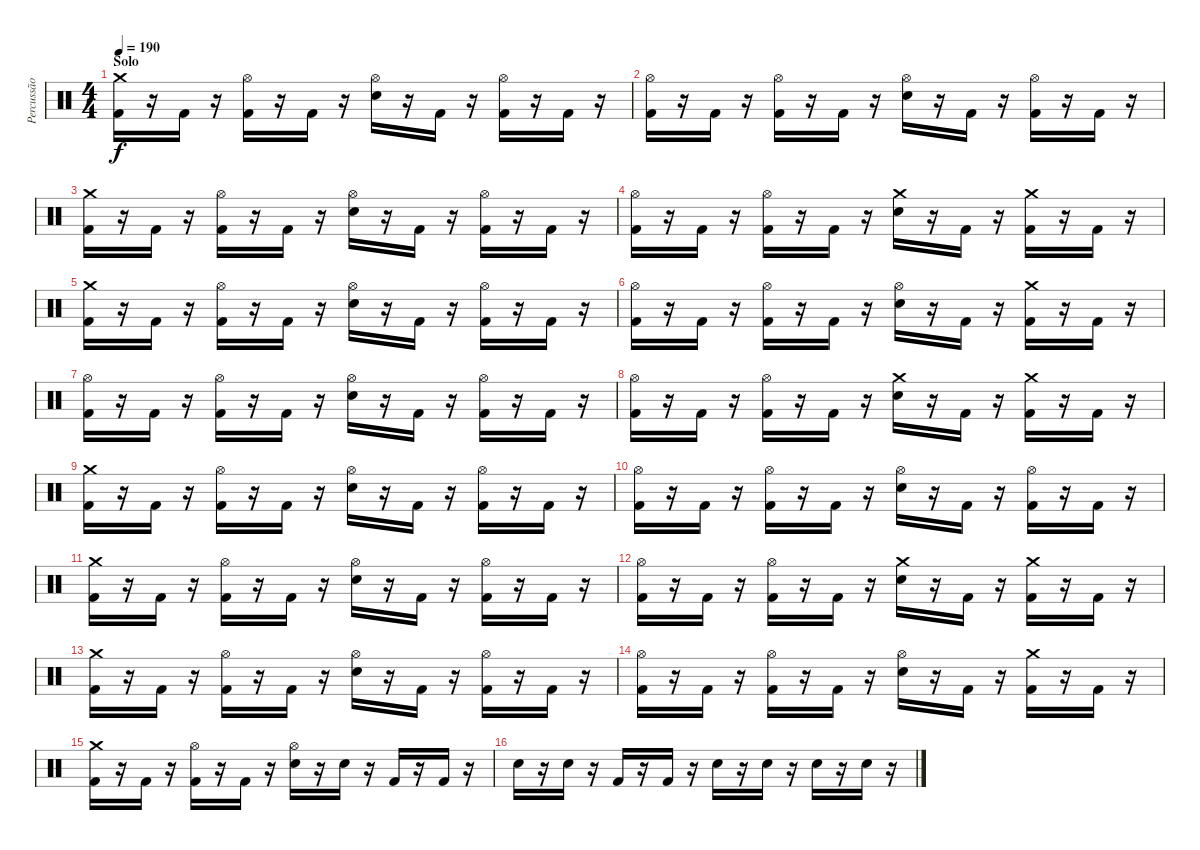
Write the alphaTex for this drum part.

\track ("Percussão" "Percussão") {instrument percussion}
\staff {score}
\articulation defaults
\ts (4 4)
\section ("" "Solo")
\tempo 190
\clef neutral
\ks c
("Crash medium (hit)" "Kick (hit) 2").16{dy f} r.16 "Kick (hit) 2".16 r.16 ("Hi-Hat (open)" "Kick (hit) 2").16 r.16 "Kick (hit) 2".16 r.16 ("Hi-Hat (open)" "Electric Snare (hit)").16 r.16 "Kick (hit) 2".16 r.16 ("Hi-Hat (open)" "Kick (hit) 2").16 r.16 "Kick (hit) 2".16 r.16 |
("Hi-Hat (open)" "Kick (hit) 2").16 r.16 "Kick (hit) 2".16 r.16 ("Hi-Hat (open)" "Kick (hit) 2").16 r.16 "Kick (hit) 2".16 r.16 ("Hi-Hat (open)" "Electric Snare (hit)").16 r.16 "Kick (hit) 2".16 r.16 ("Hi-Hat (open)" "Kick (hit) 2").16 r.16 "Kick (hit) 2".16 r.16 |
("Crash medium (hit)" "Kick (hit) 2").16 r.16 "Kick (hit) 2".16 r.16 ("Hi-Hat (open)" "Kick (hit) 2").16 r.16 "Kick (hit) 2".16 r.16 ("Hi-Hat (open)" "Electric Snare (hit)").16 r.16 "Kick (hit) 2".16 r.16 ("Hi-Hat (open)" "Kick (hit) 2").16 r.16 "Kick (hit) 2".16 r.16 |
("Hi-Hat (open)" "Kick (hit) 2").16 r.16 "Kick (hit) 2".16 r.16 ("Hi-Hat (open)" "Kick (hit) 2").16 r.16 "Kick (hit) 2".16 r.16 ("Crash medium (hit)" "Electric Snare (hit)").16 r.16 "Kick (hit) 2".16 r.16 ("Crash medium (hit)" "Kick (hit) 2").16 r.16 "Kick (hit) 2".16 r.16 |
("Crash medium (hit)" "Kick (hit) 2").16 r.16 "Kick (hit) 2".16 r.16 ("Hi-Hat (open)" "Kick (hit) 2").16 r.16 "Kick (hit) 2".16 r.16 ("Hi-Hat (open)" "Electric Snare (hit)").16 r.16 "Kick (hit) 2".16 r.16 ("Hi-Hat (open)" "Kick (hit) 2").16 r.16 "Kick (hit) 2".16 r.16 |
("Hi-Hat (open)" "Kick (hit) 2").16 r.16 "Kick (hit) 2".16 r.16 ("Hi-Hat (open)" "Kick (hit) 2").16 r.16 "Kick (hit) 2".16 r.16 ("Hi-Hat (open)" "Electric Snare (hit)").16 r.16 "Kick (hit) 2".16 r.16 ("Crash medium (hit)" "Kick (hit) 2").16 r.16 "Kick (hit) 2".16 r.16 |
("Hi-Hat (open)" "Kick (hit) 2").16 r.16 "Kick (hit) 2".16 r.16 ("Hi-Hat (open)" "Kick (hit) 2").16 r.16 "Kick (hit) 2".16 r.16 ("Hi-Hat (open)" "Electric Snare (hit)").16 r.16 "Kick (hit) 2".16 r.16 ("Hi-Hat (open)" "Kick (hit) 2").16 r.16 "Kick (hit) 2".16 r.16 |
("Hi-Hat (open)" "Kick (hit) 2").16 r.16 "Kick (hit) 2".16 r.16 ("Hi-Hat (open)" "Kick (hit) 2").16 r.16 "Kick (hit) 2".16 r.16 ("Crash medium (hit)" "Electric Snare (hit)").16 r.16 "Kick (hit) 2".16 r.16 ("Crash medium (hit)" "Kick (hit) 2").16 r.16 "Kick (hit) 2".16 r.16 |
("Crash medium (hit)" "Kick (hit) 2").16 r.16 "Kick (hit) 2".16 r.16 ("Hi-Hat (open)" "Kick (hit) 2").16 r.16 "Kick (hit) 2".16 r.16 ("Hi-Hat (open)" "Electric Snare (hit)").16 r.16 "Kick (hit) 2".16 r.16 ("Hi-Hat (open)" "Kick (hit) 2").16 r.16 "Kick (hit) 2".16 r.16 |
("Hi-Hat (open)" "Kick (hit) 2").16 r.16 "Kick (hit) 2".16 r.16 ("Hi-Hat (open)" "Kick (hit) 2").16 r.16 "Kick (hit) 2".16 r.16 ("Hi-Hat (open)" "Electric Snare (hit)").16 r.16 "Kick (hit) 2".16 r.16 ("Hi-Hat (open)" "Kick (hit) 2").16 r.16 "Kick (hit) 2".16 r.16 |
("Crash medium (hit)" "Kick (hit) 2").16 r.16 "Kick (hit) 2".16 r.16 ("Hi-Hat (open)" "Kick (hit) 2").16 r.16 "Kick (hit) 2".16 r.16 ("Hi-Hat (open)" "Electric Snare (hit)").16 r.16 "Kick (hit) 2".16 r.16 ("Hi-Hat (open)" "Kick (hit) 2").16 r.16 "Kick (hit) 2".16 r.16 |
("Hi-Hat (open)" "Kick (hit) 2").16 r.16 "Kick (hit) 2".16 r.16 ("Hi-Hat (open)" "Kick (hit) 2").16 r.16 "Kick (hit) 2".16 r.16 ("Crash medium (hit)" "Electric Snare (hit)").16 r.16 "Kick (hit) 2".16 r.16 ("Crash medium (hit)" "Kick (hit) 2").16 r.16 "Kick (hit) 2".16 r.16 |
("Crash medium (hit)" "Kick (hit) 2").16 r.16 "Kick (hit) 2".16 r.16 ("Hi-Hat (open)" "Kick (hit) 2").16 r.16 "Kick (hit) 2".16 r.16 ("Hi-Hat (open)" "Electric Snare (hit)").16 r.16 "Kick (hit) 2".16 r.16 ("Hi-Hat (open)" "Kick (hit) 2").16 r.16 "Kick (hit) 2".16 r.16 |
("Hi-Hat (open)" "Kick (hit) 2").16 r.16 "Kick (hit) 2".16 r.16 ("Hi-Hat (open)" "Kick (hit) 2").16 r.16 "Kick (hit) 2".16 r.16 ("Hi-Hat (open)" "Electric Snare (hit)").16 r.16 "Kick (hit) 2".16 r.16 ("Crash medium (hit)" "Kick (hit) 2").16 r.16 "Kick (hit) 2".16 r.16 |
("Crash medium (hit)" "Kick (hit) 2").16 r.16 "Kick (hit) 2".16 r.16 ("Hi-Hat (open)" "Kick (hit) 2").16 r.16 "Kick (hit) 2".16 r.16 ("Hi-Hat (open)" "Electric Snare (hit)").16 r.16 "Electric Snare (hit)".16 r.16 "Kick (hit) 2".16 r.16 "Kick (hit) 2".16 r.16 |
"Electric Snare (hit)".16 r.16 "Electric Snare (hit)".16 r.16 "Kick (hit) 2".16 r.16 "Kick (hit) 2".16 r.16 "Electric Snare (hit)".16 r.16 "Electric Snare (hit)".16 r.16 "Electric Snare (hit)".16 r.16 "Electric Snare (hit)".16 r.16
